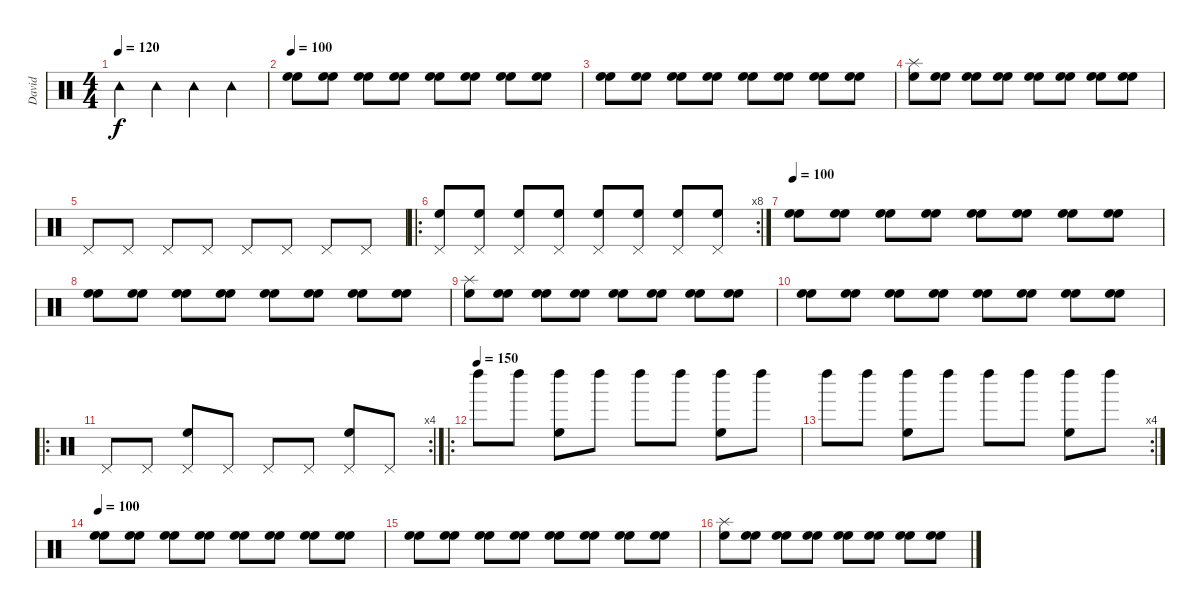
\track ("David" "David") {instrument percussion}
\staff {score}
\articulation defaults
\ts (4 4)
\tempo 120
\tempo 150
\tempo 120
\clef neutral
\ks c "Tambourine (hit)".4{dy f volume 8} "Tambourine (hit)".4 "Tambourine (hit)".4 "Tambourine (hit)".4
|
\tempo 100
("High Floor Tom (hit)" "High Floor Tom (hit)").8{volume 16} ("High Floor Tom (hit)" "High Floor Tom (hit)").8 ("High Floor Tom (hit)" "High Floor Tom (hit)").8 ("High Floor Tom (hit)" "High Floor Tom (hit)").8 ("High Floor Tom (hit)" "High Floor Tom (hit)").8 ("High Floor Tom (hit)" "High Floor Tom (hit)").8 ("High Floor Tom (hit)" "High Floor Tom (hit)").8 ("High Floor Tom (hit)" "High Floor Tom (hit)").8 |
("High Floor Tom (hit)" "High Floor Tom (hit)").8 ("High Floor Tom (hit)" "High Floor Tom (hit)").8 ("High Floor Tom (hit)" "High Floor Tom (hit)").8 ("High Floor Tom (hit)" "High Floor Tom (hit)").8 ("High Floor Tom (hit)" "High Floor Tom (hit)").8 ("High Floor Tom (hit)" "High Floor Tom (hit)").8 ("High Floor Tom (hit)" "High Floor Tom (hit)").8 ("High Floor Tom (hit)" "High Floor Tom (hit)").8 |
("High Floor Tom (hit)" "Splash (hit)").8 ("High Floor Tom (hit)" "High Floor Tom (hit)").8 ("High Floor Tom (hit)" "High Floor Tom (hit)").8 ("High Floor Tom (hit)" "High Floor Tom (hit)").8 ("High Floor Tom (hit)" "High Floor Tom (hit)").8 ("High Floor Tom (hit)" "High Floor Tom (hit)").8 ("High Floor Tom (hit)" "High Floor Tom (hit)").8 ("High Floor Tom (hit)" "High Floor Tom (hit)").8 |
"Pedal Hi-Hat (hit)".8 "Pedal Hi-Hat (hit)".8 "Pedal Hi-Hat (hit)".8 "Pedal Hi-Hat (hit)".8 "Pedal Hi-Hat (hit)".8 "Pedal Hi-Hat (hit)".8 "Pedal Hi-Hat (hit)".8 "Pedal Hi-Hat (hit)".8 |
\ro
\rc 8
("Pedal Hi-Hat (hit)" "High Floor Tom (hit)").8 ("Pedal Hi-Hat (hit)" "High Floor Tom (hit)").8 ("Pedal Hi-Hat (hit)" "High Floor Tom (hit)").8 ("Pedal Hi-Hat (hit)" "High Floor Tom (hit)").8 ("Pedal Hi-Hat (hit)" "High Floor Tom (hit)").8 ("Pedal Hi-Hat (hit)" "High Floor Tom (hit)").8 ("Pedal Hi-Hat (hit)" "High Floor Tom (hit)").8 ("Pedal Hi-Hat (hit)" "High Floor Tom (hit)").8 |
\tempo 100
("High Floor Tom (hit)" "High Floor Tom (hit)").8 ("High Floor Tom (hit)" "High Floor Tom (hit)").8 ("High Floor Tom (hit)" "High Floor Tom (hit)").8 ("High Floor Tom (hit)" "High Floor Tom (hit)").8 ("High Floor Tom (hit)" "High Floor Tom (hit)").8 ("High Floor Tom (hit)" "High Floor Tom (hit)").8 ("High Floor Tom (hit)" "High Floor Tom (hit)").8 ("High Floor Tom (hit)" "High Floor Tom (hit)").8 |
("High Floor Tom (hit)" "High Floor Tom (hit)").8 ("High Floor Tom (hit)" "High Floor Tom (hit)").8 ("High Floor Tom (hit)" "High Floor Tom (hit)").8 ("High Floor Tom (hit)" "High Floor Tom (hit)").8 ("High Floor Tom (hit)" "High Floor Tom (hit)").8 ("High Floor Tom (hit)" "High Floor Tom (hit)").8 ("High Floor Tom (hit)" "High Floor Tom (hit)").8 ("High Floor Tom (hit)" "High Floor Tom (hit)").8 |
("High Floor Tom (hit)" "Splash (hit)").8 ("High Floor Tom (hit)" "High Floor Tom (hit)").8 ("High Floor Tom (hit)" "High Floor Tom (hit)").8 ("High Floor Tom (hit)" "High Floor Tom (hit)").8 ("High Floor Tom (hit)" "High Floor Tom (hit)").8 ("High Floor Tom (hit)" "High Floor Tom (hit)").8 ("High Floor Tom (hit)" "High Floor Tom (hit)").8 ("High Floor Tom (hit)" "High Floor Tom (hit)").8 |
("High Floor Tom (hit)" "High Floor Tom (hit)").8 ("High Floor Tom (hit)" "High Floor Tom (hit)").8 ("High Floor Tom (hit)" "High Floor Tom (hit)").8 ("High Floor Tom (hit)" "High Floor Tom (hit)").8 ("High Floor Tom (hit)" "High Floor Tom (hit)").8 ("High Floor Tom (hit)" "High Floor Tom (hit)").8 ("High Floor Tom (hit)" "High Floor Tom (hit)").8 ("High Floor Tom (hit)" "High Floor Tom (hit)").8 |
\ro
\rc 4 "Pedal Hi-Hat (hit)".8 "Pedal Hi-Hat (hit)".8
("Pedal Hi-Hat (hit)" "High Floor Tom (hit)").8 "Pedal Hi-Hat (hit)".8 "Pedal Hi-Hat (hit)".8 "Pedal Hi-Hat (hit)".8 ("Pedal Hi-Hat (hit)" "High Floor Tom (hit)").8 "Pedal Hi-Hat (hit)".8 |
\ro
\tempo (150)
"Left Maraca (hit)".8 "Left Maraca (hit)".8 ("Left Maraca (hit)" "High Floor Tom (hit)").8 "Left Maraca (hit)".8 "Left Maraca (hit)".8 "Left Maraca (hit)".8 ("Left Maraca (hit)" "High Floor Tom (hit)").8 "Left Maraca (hit)".8 |
\rc 4 "Left Maraca (hit)".8 "Left Maraca (hit)".8
("Left Maraca (hit)" "High Floor Tom (hit)").8 "Left Maraca (hit)".8 "Left Maraca (hit)".8 "Left Maraca (hit)".8 ("Left Maraca (hit)" "High Floor Tom (hit)").8 "Left Maraca (hit)".8 |
\tempo 100
("High Floor Tom (hit)" "High Floor Tom (hit)").8 ("High Floor Tom (hit)" "High Floor Tom (hit)").8 ("High Floor Tom (hit)" "High Floor Tom (hit)").8 ("High Floor Tom (hit)" "High Floor Tom (hit)").8 ("High Floor Tom (hit)" "High Floor Tom (hit)").8 ("High Floor Tom (hit)" "High Floor Tom (hit)").8 ("High Floor Tom (hit)" "High Floor Tom (hit)").8 ("High Floor Tom (hit)" "High Floor Tom (hit)").8 |
("High Floor Tom (hit)" "High Floor Tom (hit)").8 ("High Floor Tom (hit)" "High Floor Tom (hit)").8 ("High Floor Tom (hit)" "High Floor Tom (hit)").8 ("High Floor Tom (hit)" "High Floor Tom (hit)").8 ("High Floor Tom (hit)" "High Floor Tom (hit)").8 ("High Floor Tom (hit)" "High Floor Tom (hit)").8 ("High Floor Tom (hit)" "High Floor Tom (hit)").8 ("High Floor Tom (hit)" "High Floor Tom (hit)").8 |
("High Floor Tom (hit)" "Splash (hit)").8 ("High Floor Tom (hit)" "High Floor Tom (hit)").8 ("High Floor Tom (hit)" "High Floor Tom (hit)").8 ("High Floor Tom (hit)" "High Floor Tom (hit)").8 ("High Floor Tom (hit)" "High Floor Tom (hit)").8 ("High Floor Tom (hit)" "High Floor Tom (hit)").8 ("High Floor Tom (hit)" "High Floor Tom (hit)").8 ("High Floor Tom (hit)" "High Floor Tom (hit)").8
